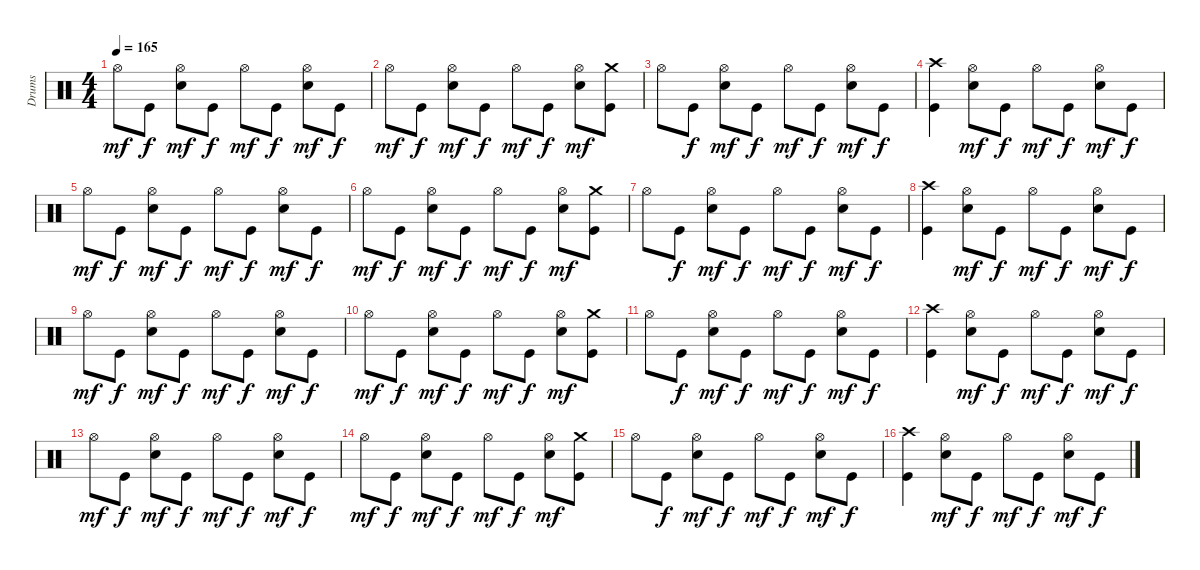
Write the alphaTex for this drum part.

\track ("Drums" "Drums") {instrument percussion}
\staff {score}
\articulation defaults
\ts (4 4)
\tempo 165
\clef neutral
\ks c "Hi-Hat (open)".8{dy mf} "Kick (hit)".8{dy f}
("Electric Snare (hit)" "Hi-Hat (open)").8{dy mf} "Kick (hit)".8{dy f} "Hi-Hat (open)".8{dy mf} "Kick (hit)".8{dy f} ("Electric Snare (hit)" "Hi-Hat (open)").8{dy mf} "Kick (hit)".8{dy f} |
"Hi-Hat (open)".8{dy mf} "Kick (hit)".8{dy f} ("Electric Snare (hit)" "Hi-Hat (open)").8{dy mf} "Kick (hit)".8{dy f} "Hi-Hat (open)".8{dy mf} "Kick (hit)".8{dy f} ("Electric Snare (hit)" "Hi-Hat (open)").8{dy mf} ("Kick (hit)" "Crash medium (hit)").8 |
"Hi-Hat (open)".8 "Kick (hit)".8{dy f} ("Electric Snare (hit)" "Hi-Hat (open)").8{dy mf} "Kick (hit)".8{dy f} "Hi-Hat (open)".8{dy mf} "Kick (hit)".8{dy f} ("Electric Snare (hit)" "Hi-Hat (open)").8{dy mf} "Kick (hit)".8{dy f} |
("Kick (hit)" "Crash high (hit)").4 ("Electric Snare (hit)" "Hi-Hat (open)").8{dy mf} "Kick (hit)".8{dy f} "Hi-Hat (open)".8{dy mf} "Kick (hit)".8{dy f} ("Electric Snare (hit)" "Hi-Hat (open)").8{dy mf} "Kick (hit)".8{dy f} |
"Hi-Hat (open)".8{dy mf} "Kick (hit)".8{dy f} ("Electric Snare (hit)" "Hi-Hat (open)").8{dy mf} "Kick (hit)".8{dy f} "Hi-Hat (open)".8{dy mf} "Kick (hit)".8{dy f} ("Electric Snare (hit)" "Hi-Hat (open)").8{dy mf} "Kick (hit)".8{dy f} |
"Hi-Hat (open)".8{dy mf} "Kick (hit)".8{dy f} ("Electric Snare (hit)" "Hi-Hat (open)").8{dy mf} "Kick (hit)".8{dy f} "Hi-Hat (open)".8{dy mf} "Kick (hit)".8{dy f} ("Electric Snare (hit)" "Hi-Hat (open)").8{dy mf} ("Kick (hit)" "Crash medium (hit)").8 |
"Hi-Hat (open)".8 "Kick (hit)".8{dy f} ("Electric Snare (hit)" "Hi-Hat (open)").8{dy mf} "Kick (hit)".8{dy f} "Hi-Hat (open)".8{dy mf} "Kick (hit)".8{dy f} ("Electric Snare (hit)" "Hi-Hat (open)").8{dy mf} "Kick (hit)".8{dy f} |
("Kick (hit)" "Crash high (hit)").4 ("Electric Snare (hit)" "Hi-Hat (open)").8{dy mf} "Kick (hit)".8{dy f} "Hi-Hat (open)".8{dy mf} "Kick (hit)".8{dy f} ("Electric Snare (hit)" "Hi-Hat (open)").8{dy mf} "Kick (hit)".8{dy f} |
"Hi-Hat (open)".8{dy mf} "Kick (hit)".8{dy f} ("Electric Snare (hit)" "Hi-Hat (open)").8{dy mf} "Kick (hit)".8{dy f} "Hi-Hat (open)".8{dy mf} "Kick (hit)".8{dy f} ("Electric Snare (hit)" "Hi-Hat (open)").8{dy mf} "Kick (hit)".8{dy f} |
"Hi-Hat (open)".8{dy mf} "Kick (hit)".8{dy f} ("Electric Snare (hit)" "Hi-Hat (open)").8{dy mf} "Kick (hit)".8{dy f} "Hi-Hat (open)".8{dy mf} "Kick (hit)".8{dy f} ("Electric Snare (hit)" "Hi-Hat (open)").8{dy mf} ("Kick (hit)" "Crash medium (hit)").8 |
"Hi-Hat (open)".8 "Kick (hit)".8{dy f} ("Electric Snare (hit)" "Hi-Hat (open)").8{dy mf} "Kick (hit)".8{dy f} "Hi-Hat (open)".8{dy mf} "Kick (hit)".8{dy f} ("Electric Snare (hit)" "Hi-Hat (open)").8{dy mf} "Kick (hit)".8{dy f} |
("Kick (hit)" "Crash high (hit)").4 ("Electric Snare (hit)" "Hi-Hat (open)").8{dy mf} "Kick (hit)".8{dy f} "Hi-Hat (open)".8{dy mf} "Kick (hit)".8{dy f} ("Electric Snare (hit)" "Hi-Hat (open)").8{dy mf} "Kick (hit)".8{dy f} |
"Hi-Hat (open)".8{dy mf} "Kick (hit)".8{dy f} ("Electric Snare (hit)" "Hi-Hat (open)").8{dy mf} "Kick (hit)".8{dy f} "Hi-Hat (open)".8{dy mf} "Kick (hit)".8{dy f} ("Electric Snare (hit)" "Hi-Hat (open)").8{dy mf} "Kick (hit)".8{dy f} |
"Hi-Hat (open)".8{dy mf} "Kick (hit)".8{dy f} ("Electric Snare (hit)" "Hi-Hat (open)").8{dy mf} "Kick (hit)".8{dy f} "Hi-Hat (open)".8{dy mf} "Kick (hit)".8{dy f} ("Electric Snare (hit)" "Hi-Hat (open)").8{dy mf} ("Kick (hit)" "Crash medium (hit)").8 |
"Hi-Hat (open)".8 "Kick (hit)".8{dy f} ("Electric Snare (hit)" "Hi-Hat (open)").8{dy mf} "Kick (hit)".8{dy f} "Hi-Hat (open)".8{dy mf} "Kick (hit)".8{dy f} ("Electric Snare (hit)" "Hi-Hat (open)").8{dy mf} "Kick (hit)".8{dy f} |
("Kick (hit)" "Crash high (hit)").4 ("Electric Snare (hit)" "Hi-Hat (open)").8{dy mf} "Kick (hit)".8{dy f} "Hi-Hat (open)".8{dy mf} "Kick (hit)".8{dy f} ("Electric Snare (hit)" "Hi-Hat (open)").8{dy mf} "Kick (hit)".8{dy f}
